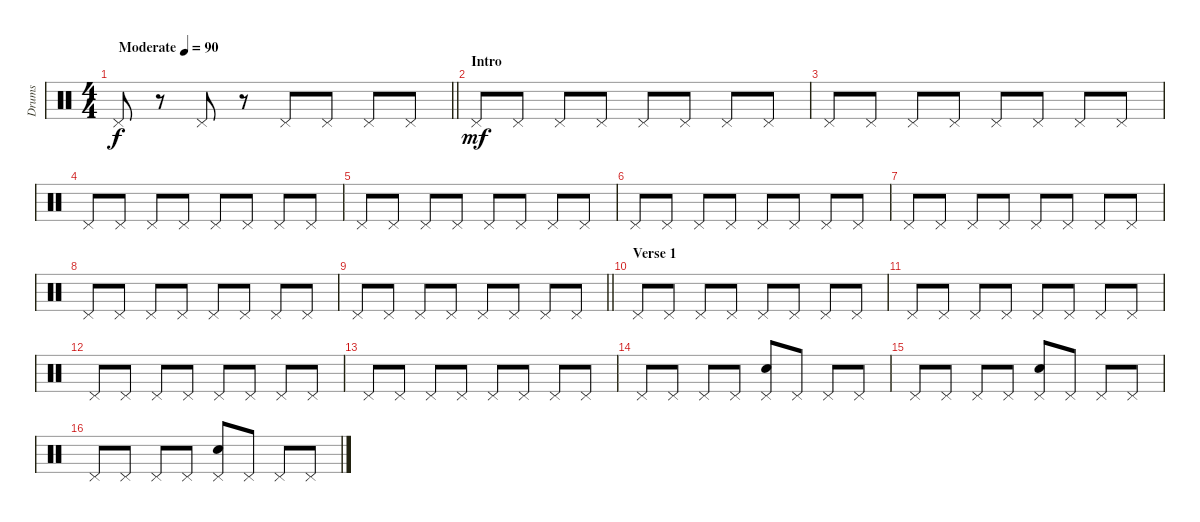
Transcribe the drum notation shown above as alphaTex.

\track ("Drums" "Drums") {instrument percussion}
\staff {score}
\articulation defaults
\ts (4 4)
\tempo (90 "Moderate")
\clef neutral
\barLineRight lightlight
\ks c "Pedal Hi-Hat (hit)".8{dy f}
r.8 "Pedal Hi-Hat (hit)".8 r.8 "Pedal Hi-Hat (hit)".8 "Pedal Hi-Hat (hit)".8 "Pedal Hi-Hat (hit)".8 "Pedal Hi-Hat (hit)".8 |
\section ("" "Intro")
"Pedal Hi-Hat (hit)".8{dy mf} "Pedal Hi-Hat (hit)".8 "Pedal Hi-Hat (hit)".8 "Pedal Hi-Hat (hit)".8 "Pedal Hi-Hat (hit)".8 "Pedal Hi-Hat (hit)".8 "Pedal Hi-Hat (hit)".8 "Pedal Hi-Hat (hit)".8 |
"Pedal Hi-Hat (hit)".8 "Pedal Hi-Hat (hit)".8 "Pedal Hi-Hat (hit)".8 "Pedal Hi-Hat (hit)".8 "Pedal Hi-Hat (hit)".8 "Pedal Hi-Hat (hit)".8 "Pedal Hi-Hat (hit)".8 "Pedal Hi-Hat (hit)".8 |
"Pedal Hi-Hat (hit)".8 "Pedal Hi-Hat (hit)".8 "Pedal Hi-Hat (hit)".8 "Pedal Hi-Hat (hit)".8 "Pedal Hi-Hat (hit)".8 "Pedal Hi-Hat (hit)".8 "Pedal Hi-Hat (hit)".8 "Pedal Hi-Hat (hit)".8 |
"Pedal Hi-Hat (hit)".8 "Pedal Hi-Hat (hit)".8 "Pedal Hi-Hat (hit)".8 "Pedal Hi-Hat (hit)".8 "Pedal Hi-Hat (hit)".8 "Pedal Hi-Hat (hit)".8 "Pedal Hi-Hat (hit)".8 "Pedal Hi-Hat (hit)".8 |
"Pedal Hi-Hat (hit)".8 "Pedal Hi-Hat (hit)".8 "Pedal Hi-Hat (hit)".8 "Pedal Hi-Hat (hit)".8 "Pedal Hi-Hat (hit)".8 "Pedal Hi-Hat (hit)".8 "Pedal Hi-Hat (hit)".8 "Pedal Hi-Hat (hit)".8 |
"Pedal Hi-Hat (hit)".8 "Pedal Hi-Hat (hit)".8 "Pedal Hi-Hat (hit)".8 "Pedal Hi-Hat (hit)".8 "Pedal Hi-Hat (hit)".8 "Pedal Hi-Hat (hit)".8 "Pedal Hi-Hat (hit)".8 "Pedal Hi-Hat (hit)".8 |
"Pedal Hi-Hat (hit)".8 "Pedal Hi-Hat (hit)".8 "Pedal Hi-Hat (hit)".8 "Pedal Hi-Hat (hit)".8 "Pedal Hi-Hat (hit)".8 "Pedal Hi-Hat (hit)".8 "Pedal Hi-Hat (hit)".8 "Pedal Hi-Hat (hit)".8 |
\barLineRight lightlight "Pedal Hi-Hat (hit)".8 "Pedal Hi-Hat (hit)".8 "Pedal Hi-Hat (hit)".8 "Pedal Hi-Hat (hit)".8 "Pedal Hi-Hat (hit)".8 "Pedal Hi-Hat (hit)".8 "Pedal Hi-Hat (hit)".8 "Pedal Hi-Hat (hit)".8
|
\section ("" "Verse 1")
"Pedal Hi-Hat (hit)".8 "Pedal Hi-Hat (hit)".8 "Pedal Hi-Hat (hit)".8 "Pedal Hi-Hat (hit)".8 "Pedal Hi-Hat (hit)".8 "Pedal Hi-Hat (hit)".8 "Pedal Hi-Hat (hit)".8 "Pedal Hi-Hat (hit)".8 |
"Pedal Hi-Hat (hit)".8 "Pedal Hi-Hat (hit)".8 "Pedal Hi-Hat (hit)".8 "Pedal Hi-Hat (hit)".8 "Pedal Hi-Hat (hit)".8 "Pedal Hi-Hat (hit)".8 "Pedal Hi-Hat (hit)".8 "Pedal Hi-Hat (hit)".8 |
"Pedal Hi-Hat (hit)".8 "Pedal Hi-Hat (hit)".8 "Pedal Hi-Hat (hit)".8 "Pedal Hi-Hat (hit)".8 "Pedal Hi-Hat (hit)".8 "Pedal Hi-Hat (hit)".8 "Pedal Hi-Hat (hit)".8 "Pedal Hi-Hat (hit)".8 |
"Pedal Hi-Hat (hit)".8 "Pedal Hi-Hat (hit)".8 "Pedal Hi-Hat (hit)".8 "Pedal Hi-Hat (hit)".8 "Pedal Hi-Hat (hit)".8 "Pedal Hi-Hat (hit)".8 "Pedal Hi-Hat (hit)".8 "Pedal Hi-Hat (hit)".8 |
"Pedal Hi-Hat (hit)".8 "Pedal Hi-Hat (hit)".8 "Pedal Hi-Hat (hit)".8 "Pedal Hi-Hat (hit)".8 ("Electric Snare (hit)" "Pedal Hi-Hat (hit)").8 "Pedal Hi-Hat (hit)".8 "Pedal Hi-Hat (hit)".8 "Pedal Hi-Hat (hit)".8 |
"Pedal Hi-Hat (hit)".8 "Pedal Hi-Hat (hit)".8 "Pedal Hi-Hat (hit)".8 "Pedal Hi-Hat (hit)".8 ("Electric Snare (hit)" "Pedal Hi-Hat (hit)").8 "Pedal Hi-Hat (hit)".8 "Pedal Hi-Hat (hit)".8 "Pedal Hi-Hat (hit)".8 |
"Pedal Hi-Hat (hit)".8 "Pedal Hi-Hat (hit)".8 "Pedal Hi-Hat (hit)".8 "Pedal Hi-Hat (hit)".8 ("Electric Snare (hit)" "Pedal Hi-Hat (hit)").8 "Pedal Hi-Hat (hit)".8 "Pedal Hi-Hat (hit)".8 "Pedal Hi-Hat (hit)".8
